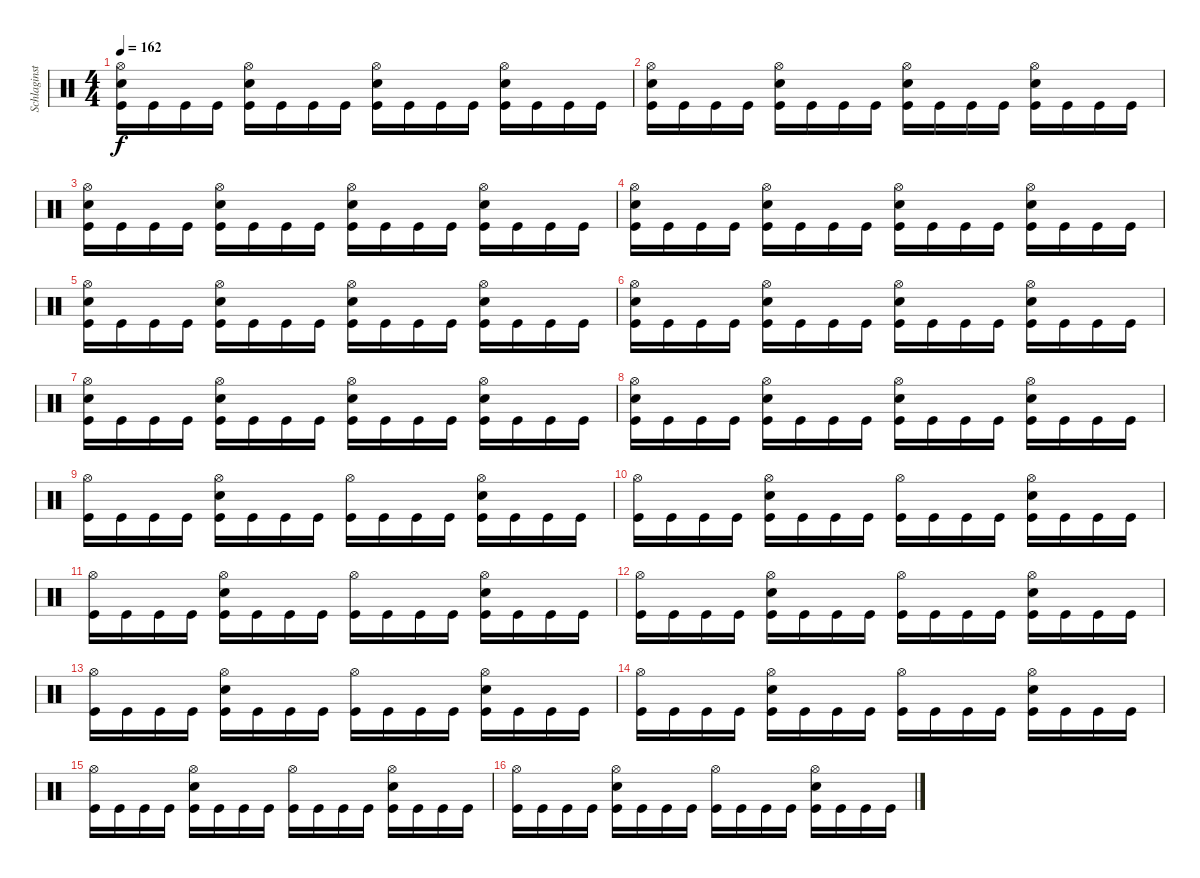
\track ("Schlaginstrumente - Auswahl" "Schlaginst") {instrument percussion}
\staff {score}
\articulation defaults
\ts (4 4)
\tempo 162
\clef neutral
\ks c
("Kick (hit)" "Electric Snare (hit)" "Hi-Hat (open)").16{dy f} "Kick (hit)".16 "Kick (hit)".16 "Kick (hit)".16 ("Kick (hit)" "Electric Snare (hit)" "Hi-Hat (open)").16 "Kick (hit)".16 "Kick (hit)".16 "Kick (hit)".16 ("Kick (hit)" "Electric Snare (hit)" "Hi-Hat (open)").16 "Kick (hit)".16 "Kick (hit)".16 "Kick (hit)".16 ("Kick (hit)" "Electric Snare (hit)" "Hi-Hat (open)").16 "Kick (hit)".16 "Kick (hit)".16 "Kick (hit)".16 |
("Kick (hit)" "Electric Snare (hit)" "Hi-Hat (open)").16 "Kick (hit)".16 "Kick (hit)".16 "Kick (hit)".16 ("Kick (hit)" "Electric Snare (hit)" "Hi-Hat (open)").16 "Kick (hit)".16 "Kick (hit)".16 "Kick (hit)".16 ("Kick (hit)" "Electric Snare (hit)" "Hi-Hat (open)").16 "Kick (hit)".16 "Kick (hit)".16 "Kick (hit)".16 ("Kick (hit)" "Electric Snare (hit)" "Hi-Hat (open)").16 "Kick (hit)".16 "Kick (hit)".16 "Kick (hit)".16 |
("Kick (hit)" "Electric Snare (hit)" "Hi-Hat (open)").16 "Kick (hit)".16 "Kick (hit)".16 "Kick (hit)".16 ("Kick (hit)" "Electric Snare (hit)" "Hi-Hat (open)").16 "Kick (hit)".16 "Kick (hit)".16 "Kick (hit)".16 ("Kick (hit)" "Electric Snare (hit)" "Hi-Hat (open)").16 "Kick (hit)".16 "Kick (hit)".16 "Kick (hit)".16 ("Kick (hit)" "Electric Snare (hit)" "Hi-Hat (open)").16 "Kick (hit)".16 "Kick (hit)".16 "Kick (hit)".16 |
("Kick (hit)" "Electric Snare (hit)" "Hi-Hat (open)").16 "Kick (hit)".16 "Kick (hit)".16 "Kick (hit)".16 ("Kick (hit)" "Electric Snare (hit)" "Hi-Hat (open)").16 "Kick (hit)".16 "Kick (hit)".16 "Kick (hit)".16 ("Kick (hit)" "Electric Snare (hit)" "Hi-Hat (open)").16 "Kick (hit)".16 "Kick (hit)".16 "Kick (hit)".16 ("Kick (hit)" "Electric Snare (hit)" "Hi-Hat (open)").16 "Kick (hit)".16 "Kick (hit)".16 "Kick (hit)".16 |
("Kick (hit)" "Electric Snare (hit)" "Hi-Hat (open)").16 "Kick (hit)".16 "Kick (hit)".16 "Kick (hit)".16 ("Kick (hit)" "Electric Snare (hit)" "Hi-Hat (open)").16 "Kick (hit)".16 "Kick (hit)".16 "Kick (hit)".16 ("Kick (hit)" "Electric Snare (hit)" "Hi-Hat (open)").16 "Kick (hit)".16 "Kick (hit)".16 "Kick (hit)".16 ("Kick (hit)" "Electric Snare (hit)" "Hi-Hat (open)").16 "Kick (hit)".16 "Kick (hit)".16 "Kick (hit)".16 |
("Kick (hit)" "Electric Snare (hit)" "Hi-Hat (open)").16 "Kick (hit)".16 "Kick (hit)".16 "Kick (hit)".16 ("Kick (hit)" "Electric Snare (hit)" "Hi-Hat (open)").16 "Kick (hit)".16 "Kick (hit)".16 "Kick (hit)".16 ("Kick (hit)" "Electric Snare (hit)" "Hi-Hat (open)").16 "Kick (hit)".16 "Kick (hit)".16 "Kick (hit)".16 ("Kick (hit)" "Electric Snare (hit)" "Hi-Hat (open)").16 "Kick (hit)".16 "Kick (hit)".16 "Kick (hit)".16 |
("Kick (hit)" "Electric Snare (hit)" "Hi-Hat (open)").16 "Kick (hit)".16 "Kick (hit)".16 "Kick (hit)".16 ("Kick (hit)" "Electric Snare (hit)" "Hi-Hat (open)").16 "Kick (hit)".16 "Kick (hit)".16 "Kick (hit)".16 ("Kick (hit)" "Electric Snare (hit)" "Hi-Hat (open)").16 "Kick (hit)".16 "Kick (hit)".16 "Kick (hit)".16 ("Kick (hit)" "Electric Snare (hit)" "Hi-Hat (open)").16 "Kick (hit)".16 "Kick (hit)".16 "Kick (hit)".16 |
("Kick (hit)" "Electric Snare (hit)" "Hi-Hat (open)").16 "Kick (hit)".16 "Kick (hit)".16 "Kick (hit)".16 ("Kick (hit)" "Electric Snare (hit)" "Hi-Hat (open)").16 "Kick (hit)".16 "Kick (hit)".16 "Kick (hit)".16 ("Kick (hit)" "Electric Snare (hit)" "Hi-Hat (open)").16 "Kick (hit)".16 "Kick (hit)".16 "Kick (hit)".16 ("Kick (hit)" "Electric Snare (hit)" "Hi-Hat (open)").16 "Kick (hit)".16 "Kick (hit)".16 "Kick (hit)".16 |
("Kick (hit)" "Hi-Hat (open)").16 "Kick (hit)".16 "Kick (hit)".16 "Kick (hit)".16 ("Kick (hit)" "Electric Snare (hit)" "Hi-Hat (open)").16 "Kick (hit)".16 "Kick (hit)".16 "Kick (hit)".16 ("Kick (hit)" "Hi-Hat (open)").16 "Kick (hit)".16 "Kick (hit)".16 "Kick (hit)".16 ("Kick (hit)" "Electric Snare (hit)" "Hi-Hat (open)").16 "Kick (hit)".16 "Kick (hit)".16 "Kick (hit)".16 |
("Kick (hit)" "Hi-Hat (open)").16 "Kick (hit)".16 "Kick (hit)".16 "Kick (hit)".16 ("Kick (hit)" "Electric Snare (hit)" "Hi-Hat (open)").16 "Kick (hit)".16 "Kick (hit)".16 "Kick (hit)".16 ("Kick (hit)" "Hi-Hat (open)").16 "Kick (hit)".16 "Kick (hit)".16 "Kick (hit)".16 ("Kick (hit)" "Electric Snare (hit)" "Hi-Hat (open)").16 "Kick (hit)".16 "Kick (hit)".16 "Kick (hit)".16 |
("Kick (hit)" "Hi-Hat (open)").16 "Kick (hit)".16 "Kick (hit)".16 "Kick (hit)".16 ("Kick (hit)" "Electric Snare (hit)" "Hi-Hat (open)").16 "Kick (hit)".16 "Kick (hit)".16 "Kick (hit)".16 ("Kick (hit)" "Hi-Hat (open)").16 "Kick (hit)".16 "Kick (hit)".16 "Kick (hit)".16 ("Kick (hit)" "Electric Snare (hit)" "Hi-Hat (open)").16 "Kick (hit)".16 "Kick (hit)".16 "Kick (hit)".16 |
("Kick (hit)" "Hi-Hat (open)").16 "Kick (hit)".16 "Kick (hit)".16 "Kick (hit)".16 ("Kick (hit)" "Electric Snare (hit)" "Hi-Hat (open)").16 "Kick (hit)".16 "Kick (hit)".16 "Kick (hit)".16 ("Kick (hit)" "Hi-Hat (open)").16 "Kick (hit)".16 "Kick (hit)".16 "Kick (hit)".16 ("Kick (hit)" "Electric Snare (hit)" "Hi-Hat (open)").16 "Kick (hit)".16 "Kick (hit)".16 "Kick (hit)".16 |
("Kick (hit)" "Hi-Hat (open)").16 "Kick (hit)".16 "Kick (hit)".16 "Kick (hit)".16 ("Kick (hit)" "Electric Snare (hit)" "Hi-Hat (open)").16 "Kick (hit)".16 "Kick (hit)".16 "Kick (hit)".16 ("Kick (hit)" "Hi-Hat (open)").16 "Kick (hit)".16 "Kick (hit)".16 "Kick (hit)".16 ("Kick (hit)" "Electric Snare (hit)" "Hi-Hat (open)").16 "Kick (hit)".16 "Kick (hit)".16 "Kick (hit)".16 |
("Kick (hit)" "Hi-Hat (open)").16 "Kick (hit)".16 "Kick (hit)".16 "Kick (hit)".16 ("Kick (hit)" "Electric Snare (hit)" "Hi-Hat (open)").16 "Kick (hit)".16 "Kick (hit)".16 "Kick (hit)".16 ("Kick (hit)" "Hi-Hat (open)").16 "Kick (hit)".16 "Kick (hit)".16 "Kick (hit)".16 ("Kick (hit)" "Electric Snare (hit)" "Hi-Hat (open)").16 "Kick (hit)".16 "Kick (hit)".16 "Kick (hit)".16 |
("Kick (hit)" "Hi-Hat (open)").16 "Kick (hit)".16 "Kick (hit)".16 "Kick (hit)".16 ("Kick (hit)" "Electric Snare (hit)" "Hi-Hat (open)").16 "Kick (hit)".16 "Kick (hit)".16 "Kick (hit)".16 ("Kick (hit)" "Hi-Hat (open)").16 "Kick (hit)".16 "Kick (hit)".16 "Kick (hit)".16 ("Kick (hit)" "Electric Snare (hit)" "Hi-Hat (open)").16 "Kick (hit)".16 "Kick (hit)".16 "Kick (hit)".16 |
("Kick (hit)" "Hi-Hat (open)").16 "Kick (hit)".16 "Kick (hit)".16 "Kick (hit)".16 ("Kick (hit)" "Electric Snare (hit)" "Hi-Hat (open)").16 "Kick (hit)".16 "Kick (hit)".16 "Kick (hit)".16 ("Kick (hit)" "Hi-Hat (open)").16 "Kick (hit)".16 "Kick (hit)".16 "Kick (hit)".16 ("Kick (hit)" "Electric Snare (hit)" "Hi-Hat (open)").16 "Kick (hit)".16 "Kick (hit)".16 "Kick (hit)".16
